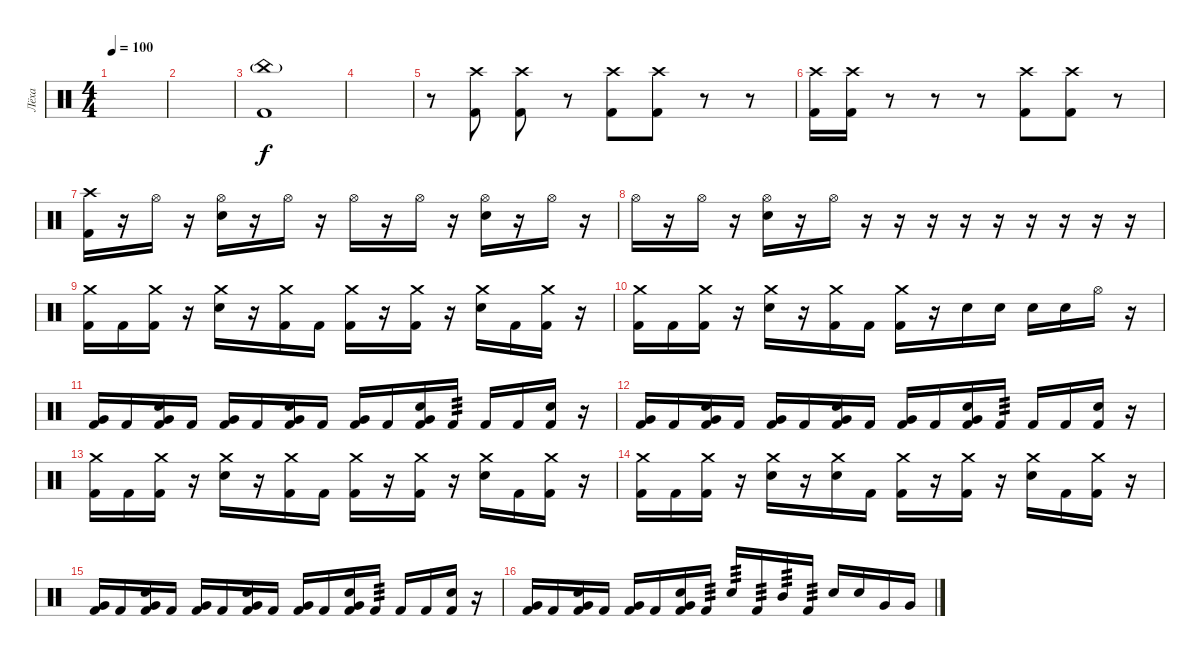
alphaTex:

\track ("Лёха" "Лёха") {instrument percussion}
\staff {score}
\articulation defaults
\ts (4 4)
\tempo 100
\clef neutral
\ks c
|
|
("China (hit)"{g} "Kick (hit) 2").1 |
|
r.8 ("Crash high (hit)" "Kick (hit) 2").8{dy f} ("Crash high (hit)" "Kick (hit) 2").8 r.8 ("Crash high (hit)" "Kick (hit) 2").8 ("Crash high (hit)" "Kick (hit) 2").8 r.8 r.8 |
("Crash high (hit)" "Kick (hit) 2").16 ("Crash high (hit)" "Kick (hit) 2").16 r.8 r.8 r.8 ("Crash high (hit)" "Kick (hit) 2").8 ("Crash high (hit)" "Kick (hit) 2").8 r.8 |
("Crash high (hit)" "Kick (hit) 2").16 r.16 "Hi-Hat (open)".16 r.16 ("Hi-Hat (open)" "Electric Snare (hit)").16 r.16 "Hi-Hat (open)".16 r.16 "Hi-Hat (open)".16 r.16 "Hi-Hat (open)".16 r.16 ("Hi-Hat (open)" "Electric Snare (hit)").16 r.16 "Hi-Hat (open)".16 r.16 |
"Hi-Hat (open)".16 r.16 "Hi-Hat (open)".16 r.16 ("Hi-Hat (open)" "Electric Snare (hit)").16 r.16 "Hi-Hat (open)".16 r.16 r.16 r.16 r.16 r.16 r.16 r.16 r.16 r.16 |
("Crash medium (hit)" "Kick (hit) 2").16 "Kick (hit) 2".16 ("Crash medium (hit)" "Kick (hit) 2").16 r.16 ("Crash medium (hit)" "Electric Snare (hit)").16 r.16 ("Crash medium (hit)" "Kick (hit) 2").16 "Kick (hit) 2".16 ("Crash medium (hit)" "Kick (hit) 2").16 r.16 ("Crash medium (hit)" "Kick (hit) 2").16 r.16 ("Crash medium (hit)" "Electric Snare (hit)").16 "Kick (hit) 2".16 ("Crash medium (hit)" "Kick (hit) 2").16 r.16 |
("Crash medium (hit)" "Kick (hit) 2").16 "Kick (hit) 2".16 ("Crash medium (hit)" "Kick (hit) 2").16 r.16 ("Crash medium (hit)" "Electric Snare (hit)").16 r.16 ("Crash medium (hit)" "Kick (hit) 2").16 "Kick (hit) 2".16 ("Crash medium (hit)" "Kick (hit) 2").16 r.16 "Electric Snare (hit)".16 "Electric Snare (hit)".16 "Electric Snare (hit)".16 "Electric Snare (hit)".16 "Hi-Hat (open)".16 r.16 |
("Very Low Tom (hit)" "Kick (hit) 2").16 "Kick (hit) 2".16 ("Electric Snare (hit)" "Very Low Tom (hit)" "Kick (hit) 2").16 "Kick (hit) 2".16 ("Very Low Tom (hit)" "Kick (hit) 2").16 "Kick (hit) 2".16 ("Electric Snare (hit)" "Very Low Tom (hit)" "Kick (hit) 2").16 "Kick (hit) 2".16 ("Very Low Tom (hit)" "Kick (hit) 2").16 "Kick (hit) 2".16 ("Electric Snare (hit)" "Very Low Tom (hit)" "Kick (hit) 2").16 "Kick (hit) 2".16{tp 3} "Kick (hit) 2".16 "Kick (hit) 2".16 ("Electric Snare (hit)" "Kick (hit) 2").16 r.16 |
("Very Low Tom (hit)" "Kick (hit) 2").16 "Kick (hit) 2".16 ("Electric Snare (hit)" "Very Low Tom (hit)" "Kick (hit) 2").16 "Kick (hit) 2".16 ("Very Low Tom (hit)" "Kick (hit) 2").16 "Kick (hit) 2".16 ("Electric Snare (hit)" "Very Low Tom (hit)" "Kick (hit) 2").16 "Kick (hit) 2".16 ("Very Low Tom (hit)" "Kick (hit) 2").16 "Kick (hit) 2".16 ("Electric Snare (hit)" "Very Low Tom (hit)" "Kick (hit) 2").16 "Kick (hit) 2".16{tp 3} "Kick (hit) 2".16 "Kick (hit) 2".16 ("Electric Snare (hit)" "Kick (hit) 2").16 r.16 |
("Crash medium (hit)" "Kick (hit) 2").16 "Kick (hit) 2".16 ("Crash medium (hit)" "Kick (hit) 2").16 r.16 ("Crash medium (hit)" "Electric Snare (hit)").16 r.16 ("Crash medium (hit)" "Kick (hit) 2").16 "Kick (hit) 2".16 ("Crash medium (hit)" "Kick (hit) 2").16 r.16 ("Crash medium (hit)" "Kick (hit) 2").16 r.16 ("Crash medium (hit)" "Electric Snare (hit)").16 "Kick (hit) 2".16 ("Crash medium (hit)" "Kick (hit) 2").16 r.16 |
("Crash medium (hit)" "Kick (hit) 2").16 "Kick (hit) 2".16 ("Crash medium (hit)" "Kick (hit) 2").16 r.16 ("Crash medium (hit)" "Electric Snare (hit)").16 r.16 ("Crash medium (hit)" "Electric Snare (hit)").16 "Kick (hit) 2".16 ("Crash medium (hit)" "Kick (hit) 2").16 r.16 ("Crash medium (hit)" "Kick (hit) 2").16 r.16 ("Crash medium (hit)" "Electric Snare (hit)").16 "Kick (hit) 2".16 ("Crash medium (hit)" "Kick (hit) 2").16 r.16 |
("Very Low Tom (hit)" "Kick (hit) 2").16 "Kick (hit) 2".16 ("Electric Snare (hit)" "Very Low Tom (hit)" "Kick (hit) 2").16 "Kick (hit) 2".16 ("Very Low Tom (hit)" "Kick (hit) 2").16 "Kick (hit) 2".16 ("Electric Snare (hit)" "Very Low Tom (hit)" "Kick (hit) 2").16 "Kick (hit) 2".16 ("Very Low Tom (hit)" "Kick (hit) 2").16 "Kick (hit) 2".16 ("Electric Snare (hit)" "Very Low Tom (hit)" "Kick (hit) 2").16 "Kick (hit) 2".16{tp 3} "Kick (hit) 2".16 "Kick (hit) 2".16 ("Electric Snare (hit)" "Kick (hit) 2").16 r.16 |
("Very Low Tom (hit)" "Kick (hit) 2").16 "Kick (hit) 2".16 ("Electric Snare (hit)" "Very Low Tom (hit)" "Kick (hit) 2").16 "Kick (hit) 2".16 ("Very Low Tom (hit)" "Kick (hit) 2").16 "Kick (hit) 2".16 ("Electric Snare (hit)" "Very Low Tom (hit)" "Kick (hit) 2").16 "Kick (hit) 2".16{tp 3} "Electric Snare (hit)".16{tp 3} "Kick (hit) 2".16{tp 3} "Mid Tom (hit)".16{tp 3} "Kick (hit) 2".16{tp 3} "Electric Snare (hit)".16 "Electric Snare (hit)".16 "Very Low Tom (hit)".16 "Very Low Tom (hit)".16
